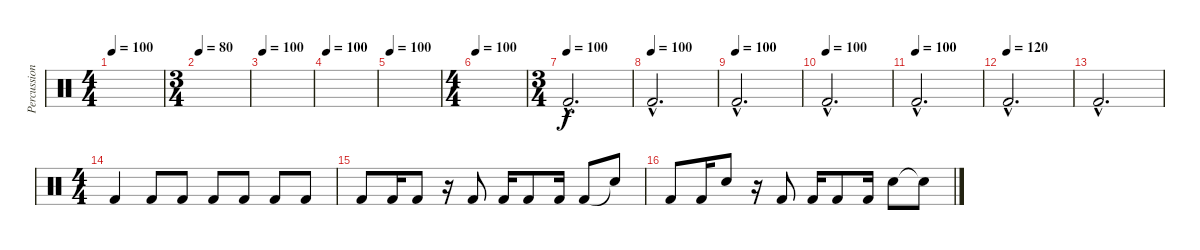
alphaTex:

\track ("Percussion" "Percussion") {instrument percussion}
\staff {score}
\articulation defaults
\ts (4 4)
\tempo 100
\clef neutral
\ks c
|
\ts (3 4)
\tempo 80
|
\tempo 100
|
\tempo 100
|
\tempo 100
|
\ts (4 4)
\tempo 100
|
\ts (3 4)
\tempo (100)
"Kick (hit) 2"{hac}.2{d} |
\tempo (100)
"Kick (hit) 2"{hac}.2{d} |
\tempo (100)
"Kick (hit) 2"{hac}.2{d} |
\tempo (100)
"Kick (hit) 2"{hac}.2{d} |
\tempo (100)
"Kick (hit) 2"{hac}.2{d} |
\tempo (120)
"Kick (hit) 2"{hac}.2{d} |
"Kick (hit) 2"{hac}.2{d} |
\ts (4 4)
"Kick (hit) 2".4 "Kick (hit) 2".8 "Kick (hit) 2".8 "Kick (hit) 2".8 "Kick (hit) 2".8 "Kick (hit) 2".8 "Kick (hit) 2".8 |
"Kick (hit) 2".8 "Kick (hit) 2".16 "Kick (hit) 2".8 r.16 "Kick (hit) 2".8 "Kick (hit) 2".16 "Kick (hit) 2".8 "Kick (hit) 2".16 "Kick (hit) 2".8 "Snare (hit)"{t}.8 |
"Kick (hit) 2".8 "Kick (hit) 2".16 "Electric Snare (hit)".8 r.16 "Kick (hit) 2".8 "Kick (hit) 2".16 "Kick (hit) 2".8 "Kick (hit) 2".16 "Electric Snare (hit)".8 "Snare (hit)"{t}.8
